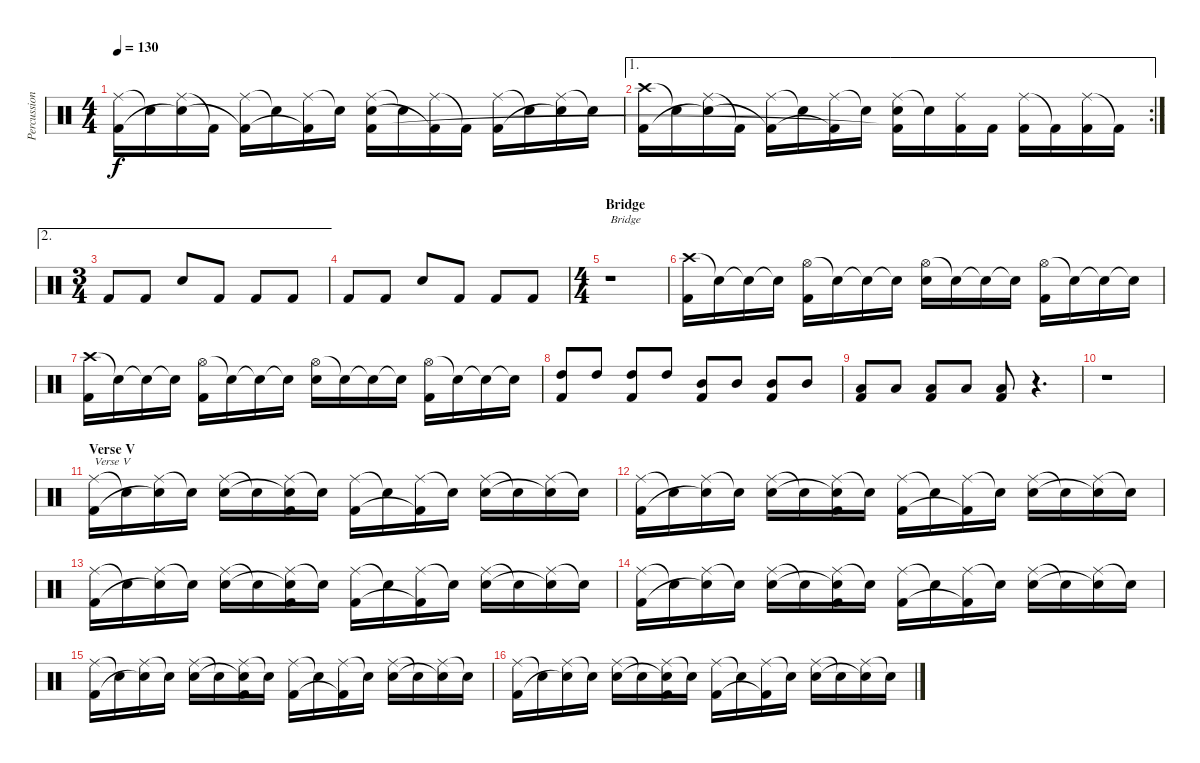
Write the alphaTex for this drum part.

\track ("Percussion" "Percussion") {instrument percussion}
\staff {score}
\articulation defaults
\ts (4 4)
\tempo 130
\clef neutral
\ks c
("Ride (middle)" "Kick (hit) 2").16{dy f} "Snare (hit)"{t}.16 ("Ride (middle)" "Snare (hit)"{t}).16 "Kick (hit) 2"{t}.16 ("Ride (middle)" "Kick (hit) 2"{t}).16 "Snare (hit)"{t}.16 ("Ride (middle)" "Kick (hit) 2"{t}).16 "Snare (hit)"{t}.16 ("Ride (middle)" "Electric Snare (hit)" "Kick (hit) 2"{t}).16 "Snare (hit)"{t}.16 ("Ride (middle)" "Kick (hit) 2"{t}).16 "Kick (hit) 2"{t}.16 ("Ride (middle)" "Kick (hit) 2").16 "Snare (hit)"{t}.16 ("Ride (middle)" "Snare (hit)"{t}).16 "Snare (hit)"{t}.16 |
\ae 1
\rc 2
("Crash high (hit)" "Kick (hit) 2").16 "Snare (hit)"{t}.16 ("Ride (middle)" "Snare (hit)"{t}).16 "Kick (hit) 2"{t}.16 ("Ride (middle)" "Kick (hit) 2"{t}).16 "Snare (hit)"{t}.16 ("Ride (middle)" "Kick (hit) 2"{t}).16 "Snare (hit)"{t}.16 ("Ride (middle)" "Electric Snare (hit)" "Kick (hit) 2"{t}).16 "Snare (hit)"{t}.16 ("Ride (middle)" "Kick (hit) 2").16 "Kick (hit) 2".16 ("Ride (middle)" "Kick (hit) 2").16 "Kick (hit) 2"{t}.16 ("Ride (middle)" "Kick (hit) 2").16 "Kick (hit) 2"{t}.16 |
\ae 2
\ts (3 4)
"Kick (hit) 2".8 "Kick (hit) 2".8 "Electric Snare (hit)".8 "Kick (hit) 2".8 "Kick (hit) 2".8 "Kick (hit) 2".8 |
"Kick (hit) 2".8 "Kick (hit) 2".8 "Electric Snare (hit)".8 "Kick (hit) 2".8 "Kick (hit) 2".8 "Kick (hit) 2".8 |
\ts (4 4)
\section ("" "Bridge")
r.1{txt "Bridge"} |
("Crash high (hit)" "Kick (hit) 2").16 "Snare (hit)"{t}.16 "Snare (hit)"{t}.16 "Snare (hit)"{t}.16 ("Hi-Hat (open)" "Kick (hit) 2").16 "Snare (hit)"{t}.16 "Snare (hit)"{t}.16 "Snare (hit)"{t}.16 ("Hi-Hat (open)" "Electric Snare (hit)").16 "Snare (hit)"{t}.16 "Snare (hit)"{t}.16 "Snare (hit)"{t}.16 ("Hi-Hat (open)" "Kick (hit) 2").16 "Snare (hit)"{t}.16 "Snare (hit)"{t}.16 "Snare (hit)"{t}.16 |
("Crash high (hit)" "Kick (hit) 2").16 "Snare (hit)"{t}.16 "Snare (hit)"{t}.16 "Snare (hit)"{t}.16 ("Hi-Hat (open)" "Kick (hit) 2").16 "Snare (hit)"{t}.16 "Snare (hit)"{t}.16 "Snare (hit)"{t}.16 ("Hi-Hat (open)" "Electric Snare (hit)").16 "Snare (hit)"{t}.16 "Snare (hit)"{t}.16 "Snare (hit)"{t}.16 ("Hi-Hat (open)" "Kick (hit) 2").16 "Snare (hit)"{t}.16 "Snare (hit)"{t}.16 "Snare (hit)"{t}.16 |
("High Tom (hit)" "Kick (hit) 2").8 "High Tom (hit)".8 ("High Tom (hit)" "Kick (hit) 2").8 "High Tom (hit)".8 ("Mid Tom (hit)" "Kick (hit) 2").8 "Mid Tom (hit)".8 ("Mid Tom (hit)" "Kick (hit) 2").8 "Mid Tom (hit)".8 |
("Low Tom (hit)" "Kick (hit) 2").8 "Low Tom (hit)".8 ("Low Tom (hit)" "Kick (hit) 2").8 "Low Tom (hit)".8 ("Low Tom (hit)" "Kick (hit) 2").8 r.4{d} |
r.1 |
\section ("" "Verse V")
("Ride (middle)" "Kick (hit) 2").16{txt "Verse V"} "Snare (hit)"{t}.16 ("Ride (middle)" "Snare (hit)"{t}).16 "Snare (hit)"{t}.16 ("Ride (middle)" "Electric Snare (hit)").16 "Snare (hit)"{t}.16 ("Ride (middle)" "Snare (hit)"{t} "Kick (hit) 2").16 "Snare (hit)"{t}.16 ("Ride (middle)" "Kick (hit) 2").16 "Snare (hit)"{t}.16 ("Ride (middle)" "Kick (hit) 2"{t}).16 "Snare (hit)"{t}.16 ("Ride (middle)" "Electric Snare (hit)").16 "Snare (hit)"{t}.16 ("Ride (middle)" "Snare (hit)"{t}).16 "Snare (hit)"{t}.16 |
("Ride (middle)" "Kick (hit) 2").16 "Snare (hit)"{t}.16 ("Ride (middle)" "Snare (hit)"{t}).16 "Snare (hit)"{t}.16 ("Ride (middle)" "Electric Snare (hit)").16 "Snare (hit)"{t}.16 ("Ride (middle)" "Snare (hit)"{t} "Kick (hit) 2").16 "Snare (hit)"{t}.16 ("Ride (middle)" "Kick (hit) 2").16 "Snare (hit)"{t}.16 ("Ride (middle)" "Kick (hit) 2"{t}).16 "Snare (hit)"{t}.16 ("Ride (middle)" "Electric Snare (hit)").16 "Snare (hit)"{t}.16 ("Ride (middle)" "Snare (hit)"{t}).16 "Snare (hit)"{t}.16 |
("Ride (middle)" "Kick (hit) 2").16 "Snare (hit)"{t}.16 ("Ride (middle)" "Snare (hit)"{t}).16 "Snare (hit)"{t}.16 ("Ride (middle)" "Electric Snare (hit)").16 "Snare (hit)"{t}.16 ("Ride (middle)" "Snare (hit)"{t} "Kick (hit) 2").16 "Snare (hit)"{t}.16 ("Ride (middle)" "Kick (hit) 2").16 "Snare (hit)"{t}.16 ("Ride (middle)" "Kick (hit) 2"{t}).16 "Snare (hit)"{t}.16 ("Ride (middle)" "Electric Snare (hit)").16 "Snare (hit)"{t}.16 ("Ride (middle)" "Snare (hit)"{t}).16 "Snare (hit)"{t}.16 |
("Ride (middle)" "Kick (hit) 2").16 "Snare (hit)"{t}.16 ("Ride (middle)" "Snare (hit)"{t}).16 "Snare (hit)"{t}.16 ("Ride (middle)" "Electric Snare (hit)").16 "Snare (hit)"{t}.16 ("Ride (middle)" "Snare (hit)"{t} "Kick (hit) 2").16 "Snare (hit)"{t}.16 ("Ride (middle)" "Kick (hit) 2").16 "Snare (hit)"{t}.16 ("Ride (middle)" "Kick (hit) 2"{t}).16 "Snare (hit)"{t}.16 ("Ride (middle)" "Electric Snare (hit)").16 "Snare (hit)"{t}.16 ("Ride (middle)" "Snare (hit)"{t}).16 "Snare (hit)"{t}.16 |
("Ride (middle)" "Kick (hit) 2").16 "Snare (hit)"{t}.16 ("Ride (middle)" "Snare (hit)"{t}).16 "Snare (hit)"{t}.16 ("Ride (middle)" "Electric Snare (hit)").16 "Snare (hit)"{t}.16 ("Ride (middle)" "Snare (hit)"{t} "Kick (hit) 2").16 "Snare (hit)"{t}.16 ("Ride (middle)" "Kick (hit) 2").16 "Snare (hit)"{t}.16 ("Ride (middle)" "Kick (hit) 2"{t}).16 "Snare (hit)"{t}.16 ("Ride (middle)" "Electric Snare (hit)").16 "Snare (hit)"{t}.16 ("Ride (middle)" "Snare (hit)"{t}).16 "Snare (hit)"{t}.16 |
("Ride (middle)" "Kick (hit) 2").16 "Snare (hit)"{t}.16 ("Ride (middle)" "Snare (hit)"{t}).16 "Snare (hit)"{t}.16 ("Ride (middle)" "Electric Snare (hit)").16 "Snare (hit)"{t}.16 ("Ride (middle)" "Snare (hit)"{t} "Kick (hit) 2").16 "Snare (hit)"{t}.16 ("Ride (middle)" "Kick (hit) 2").16 "Snare (hit)"{t}.16 ("Ride (middle)" "Kick (hit) 2"{t}).16 "Snare (hit)"{t}.16 ("Ride (middle)" "Electric Snare (hit)").16 "Snare (hit)"{t}.16 ("Ride (middle)" "Snare (hit)"{t}).16 "Snare (hit)"{t}.16
